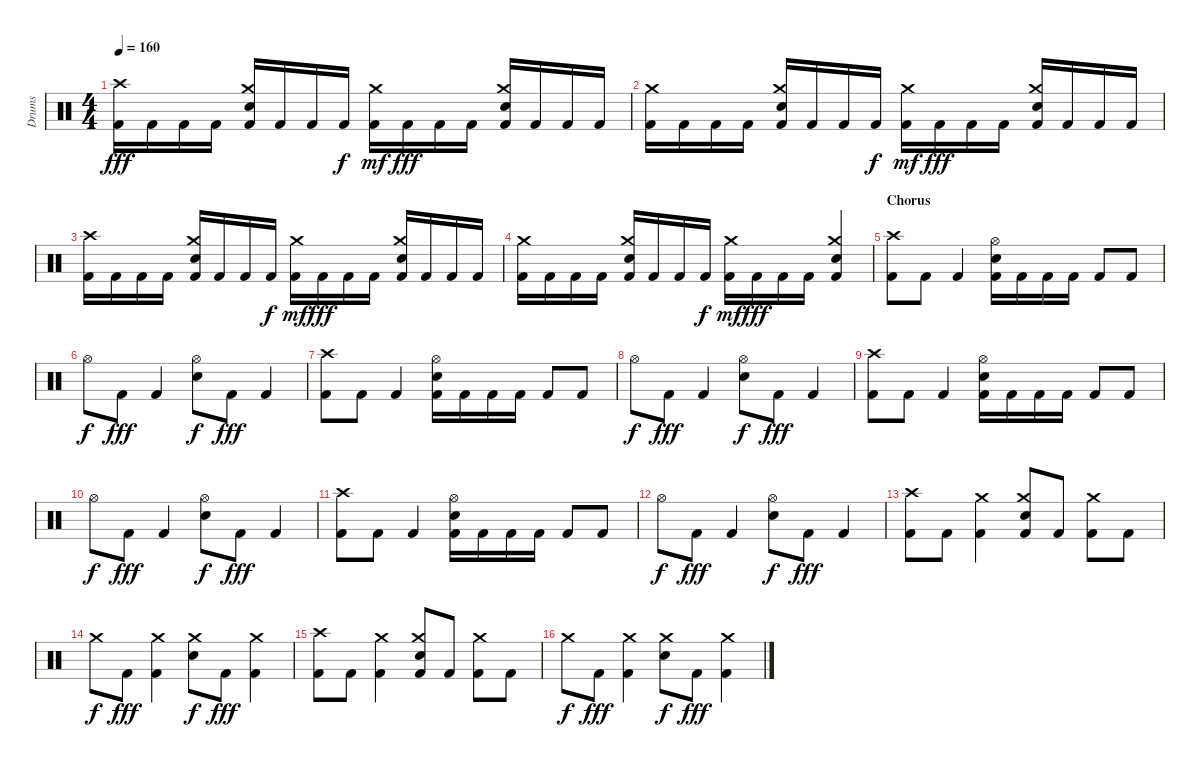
\track ("Drums" "Drums") {instrument percussion}
\staff {score}
\articulation defaults
\ts (4 4)
\tempo 160
\clef neutral
\ks c
("Crash high (hit)" "Kick (hit) 2").16{dy fff} "Kick (hit) 2".16 "Kick (hit) 2".16 "Kick (hit) 2".16 ("Crash medium (hit)" "Snare (hit) 2" "Kick (hit) 2").16 "Kick (hit) 2".16 "Kick (hit) 2".16 "Kick (hit) 2".16{dy f} ("Crash medium (hit)" "Kick (hit) 2").16{dy mf} "Kick (hit) 2".16{dy fff} "Kick (hit) 2".16 "Kick (hit) 2".16 ("Crash medium (hit)" "Snare (hit) 2" "Kick (hit) 2").16 "Kick (hit) 2".16 "Kick (hit) 2".16 "Kick (hit) 2".16 |
("Crash medium (hit)" "Kick (hit) 2").16 "Kick (hit) 2".16 "Kick (hit) 2".16 "Kick (hit) 2".16 ("Crash medium (hit)" "Snare (hit) 2" "Kick (hit) 2").16 "Kick (hit) 2".16 "Kick (hit) 2".16 "Kick (hit) 2".16{dy f} ("Crash medium (hit)" "Kick (hit) 2").16{dy mf} "Kick (hit) 2".16{dy fff} "Kick (hit) 2".16 "Kick (hit) 2".16 ("Crash medium (hit)" "Snare (hit) 2" "Kick (hit) 2").16 "Kick (hit) 2".16 "Kick (hit) 2".16 "Kick (hit) 2".16 |
("Crash high (hit)" "Kick (hit) 2").16 "Kick (hit) 2".16 "Kick (hit) 2".16 "Kick (hit) 2".16 ("Crash medium (hit)" "Snare (hit) 2" "Kick (hit) 2").16 "Kick (hit) 2".16 "Kick (hit) 2".16 "Kick (hit) 2".16{dy f} ("Crash medium (hit)" "Kick (hit) 2").16{dy mf} "Kick (hit) 2".16{dy fff} "Kick (hit) 2".16 "Kick (hit) 2".16 ("Crash medium (hit)" "Snare (hit) 2" "Kick (hit) 2").16 "Kick (hit) 2".16 "Kick (hit) 2".16 "Kick (hit) 2".16 |
("Crash medium (hit)" "Kick (hit) 2").16 "Kick (hit) 2".16 "Kick (hit) 2".16 "Kick (hit) 2".16 ("Crash medium (hit)" "Snare (hit) 2" "Kick (hit) 2").16 "Kick (hit) 2".16 "Kick (hit) 2".16 "Kick (hit) 2".16{dy f} ("Crash medium (hit)" "Kick (hit) 2").16{dy mf} "Kick (hit) 2".16{dy fff} "Kick (hit) 2".16 "Kick (hit) 2".16 ("Crash medium (hit)" "Snare (hit) 2" "Kick (hit) 2").4 |
\section ("" "Chorus")
("Crash high (hit)" "Kick (hit) 2").8 "Kick (hit) 2".8 "Kick (hit) 2".4 ("Hi-Hat (open)" "Snare (hit) 2" "Kick (hit) 2").16 "Kick (hit) 2".16 "Kick (hit) 2".16 "Kick (hit) 2".16 "Kick (hit) 2".8 "Kick (hit) 2".8 |
"Hi-Hat (open)".8{dy f} "Kick (hit) 2".8{dy fff} "Kick (hit) 2".4 ("Hi-Hat (open)" "Snare (hit) 2").8{dy f} "Kick (hit) 2".8{dy fff} "Kick (hit) 2".4 |
("Crash high (hit)" "Kick (hit) 2").8 "Kick (hit) 2".8 "Kick (hit) 2".4 ("Hi-Hat (open)" "Snare (hit) 2" "Kick (hit) 2").16 "Kick (hit) 2".16 "Kick (hit) 2".16 "Kick (hit) 2".16 "Kick (hit) 2".8 "Kick (hit) 2".8 |
"Hi-Hat (open)".8{dy f} "Kick (hit) 2".8{dy fff} "Kick (hit) 2".4 ("Hi-Hat (open)" "Snare (hit) 2").8{dy f} "Kick (hit) 2".8{dy fff} "Kick (hit) 2".4 |
("Crash high (hit)" "Kick (hit) 2").8 "Kick (hit) 2".8 "Kick (hit) 2".4 ("Hi-Hat (open)" "Snare (hit) 2" "Kick (hit) 2").16 "Kick (hit) 2".16 "Kick (hit) 2".16 "Kick (hit) 2".16 "Kick (hit) 2".8 "Kick (hit) 2".8 |
"Hi-Hat (open)".8{dy f} "Kick (hit) 2".8{dy fff} "Kick (hit) 2".4 ("Hi-Hat (open)" "Snare (hit) 2").8{dy f} "Kick (hit) 2".8{dy fff} "Kick (hit) 2".4 |
("Crash high (hit)" "Kick (hit) 2").8 "Kick (hit) 2".8 "Kick (hit) 2".4 ("Hi-Hat (open)" "Snare (hit) 2" "Kick (hit) 2").16 "Kick (hit) 2".16 "Kick (hit) 2".16 "Kick (hit) 2".16 "Kick (hit) 2".8 "Kick (hit) 2".8 |
"Hi-Hat (open)".8{dy f} "Kick (hit) 2".8{dy fff} "Kick (hit) 2".4 ("Hi-Hat (open)" "Snare (hit) 2").8{dy f} "Kick (hit) 2".8{dy fff} "Kick (hit) 2".4 |
("Crash high (hit)" "Kick (hit) 2").8 "Kick (hit) 2".8 ("Crash medium (hit)" "Kick (hit) 2").4 ("Crash medium (hit)" "Snare (hit) 2" "Kick (hit) 2").8 "Kick (hit) 2".8 ("Crash medium (hit)" "Kick (hit) 2").8 "Kick (hit) 2".8 |
"Crash medium (hit)".8{dy f} "Kick (hit) 2".8{dy fff} ("Crash medium (hit)" "Kick (hit) 2").4 ("Crash medium (hit)" "Snare (hit) 2").8{dy f} "Kick (hit) 2".8{dy fff} ("Crash medium (hit)" "Kick (hit) 2").4 |
("Crash high (hit)" "Kick (hit) 2").8 "Kick (hit) 2".8 ("Crash medium (hit)" "Kick (hit) 2").4 ("Crash medium (hit)" "Snare (hit) 2" "Kick (hit) 2").8 "Kick (hit) 2".8 ("Crash medium (hit)" "Kick (hit) 2").8 "Kick (hit) 2".8 |
"Crash medium (hit)".8{dy f} "Kick (hit) 2".8{dy fff} ("Crash medium (hit)" "Kick (hit) 2").4 ("Crash medium (hit)" "Snare (hit) 2").8{dy f} "Kick (hit) 2".8{dy fff} ("Crash medium (hit)" "Kick (hit) 2").4
